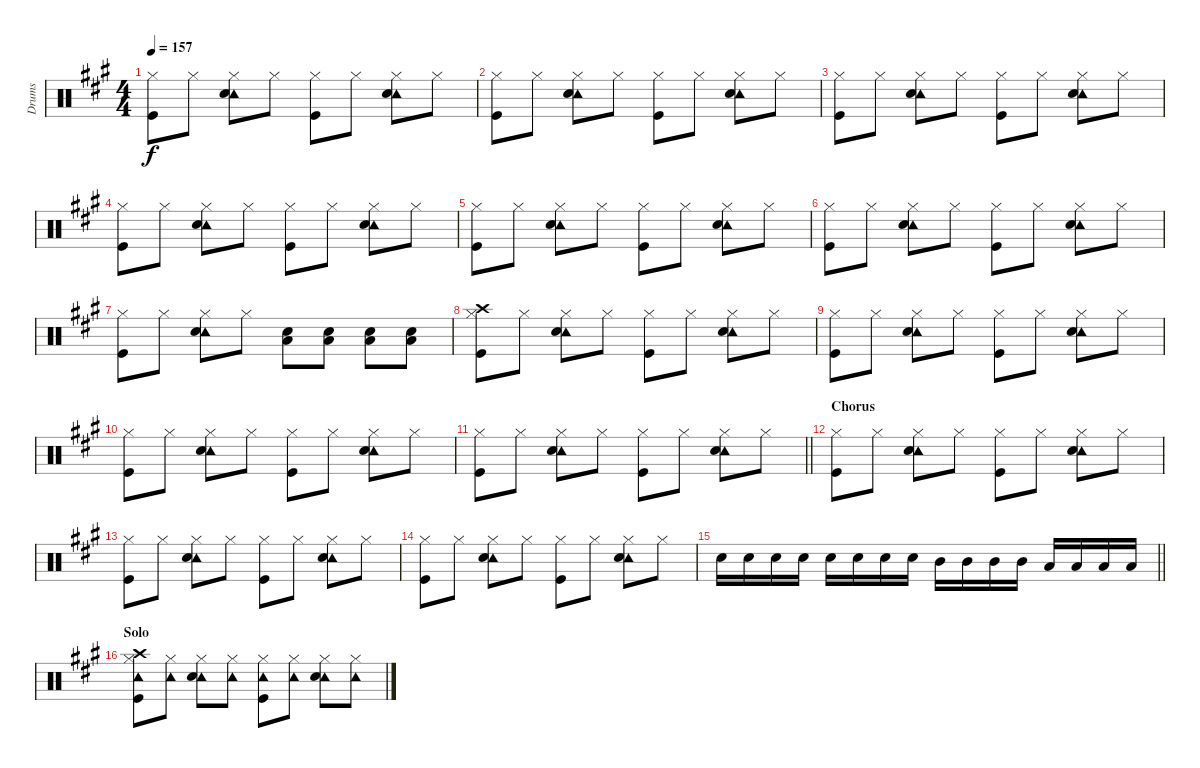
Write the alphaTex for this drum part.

\track ("Drums" "Drums") {instrument percussion}
\staff {score}
\articulation defaults
\ts (4 4)
\tempo 157
\clef neutral
\ks a
("Hi-Hat (closed)" "Kick (hit)").8{dy f} "Hi-Hat (closed)".8 ("Hi-Hat (closed)" "Tambourine (hit)" "Electric Snare (hit)").8 "Hi-Hat (closed)".8 ("Hi-Hat (closed)" "Kick (hit)").8 "Hi-Hat (closed)".8 ("Hi-Hat (closed)" "Tambourine (hit)" "Electric Snare (hit)").8 "Hi-Hat (closed)".8 |
("Hi-Hat (closed)" "Kick (hit)").8 "Hi-Hat (closed)".8 ("Hi-Hat (closed)" "Tambourine (hit)" "Electric Snare (hit)").8 "Hi-Hat (closed)".8 ("Hi-Hat (closed)" "Kick (hit)").8 "Hi-Hat (closed)".8 ("Hi-Hat (closed)" "Tambourine (hit)" "Electric Snare (hit)").8 "Hi-Hat (closed)".8 |
("Hi-Hat (closed)" "Kick (hit)").8 "Hi-Hat (closed)".8 ("Hi-Hat (closed)" "Tambourine (hit)" "Electric Snare (hit)").8 "Hi-Hat (closed)".8 ("Hi-Hat (closed)" "Kick (hit)").8 "Hi-Hat (closed)".8 ("Hi-Hat (closed)" "Tambourine (hit)" "Electric Snare (hit)").8 "Hi-Hat (closed)".8 |
("Hi-Hat (closed)" "Kick (hit)").8 "Hi-Hat (closed)".8 ("Hi-Hat (closed)" "Tambourine (hit)" "Electric Snare (hit)").8 "Hi-Hat (closed)".8 ("Hi-Hat (closed)" "Kick (hit)").8 "Hi-Hat (closed)".8 ("Hi-Hat (closed)" "Tambourine (hit)" "Electric Snare (hit)").8 "Hi-Hat (closed)".8 |
("Hi-Hat (closed)" "Kick (hit)").8 "Hi-Hat (closed)".8 ("Hi-Hat (closed)" "Tambourine (hit)" "Electric Snare (hit)").8 "Hi-Hat (closed)".8 ("Hi-Hat (closed)" "Kick (hit)").8 "Hi-Hat (closed)".8 ("Hi-Hat (closed)" "Tambourine (hit)" "Electric Snare (hit)").8 "Hi-Hat (closed)".8 |
("Hi-Hat (closed)" "Kick (hit)").8 "Hi-Hat (closed)".8 ("Hi-Hat (closed)" "Tambourine (hit)" "Electric Snare (hit)").8 "Hi-Hat (closed)".8 ("Hi-Hat (closed)" "Kick (hit)").8 "Hi-Hat (closed)".8 ("Hi-Hat (closed)" "Tambourine (hit)" "Electric Snare (hit)").8 "Hi-Hat (closed)".8 |
("Hi-Hat (closed)" "Kick (hit)").8 "Hi-Hat (closed)".8 ("Hi-Hat (closed)" "Tambourine (hit)" "Electric Snare (hit)").8 "Hi-Hat (closed)".8 ("Electric Snare (hit)" "Low Floor Tom (hit)").8 ("Electric Snare (hit)" "Low Floor Tom (hit)").8 ("Electric Snare (hit)" "Low Floor Tom (hit)").8 ("Electric Snare (hit)" "Low Floor Tom (hit)").8 |
("Hi-Hat (closed)" "Crash high (hit)" "Kick (hit)").8 "Hi-Hat (closed)".8 ("Hi-Hat (closed)" "Tambourine (hit)" "Electric Snare (hit)").8 "Hi-Hat (closed)".8 ("Hi-Hat (closed)" "Kick (hit)").8 "Hi-Hat (closed)".8 ("Hi-Hat (closed)" "Tambourine (hit)" "Electric Snare (hit)").8 "Hi-Hat (closed)".8 |
("Hi-Hat (closed)" "Kick (hit)").8 "Hi-Hat (closed)".8 ("Hi-Hat (closed)" "Tambourine (hit)" "Electric Snare (hit)").8 "Hi-Hat (closed)".8 ("Hi-Hat (closed)" "Kick (hit)").8 "Hi-Hat (closed)".8 ("Hi-Hat (closed)" "Tambourine (hit)" "Electric Snare (hit)").8 "Hi-Hat (closed)".8 |
("Hi-Hat (closed)" "Kick (hit)").8 "Hi-Hat (closed)".8 ("Hi-Hat (closed)" "Tambourine (hit)" "Electric Snare (hit)").8 "Hi-Hat (closed)".8 ("Hi-Hat (closed)" "Kick (hit)").8 "Hi-Hat (closed)".8 ("Hi-Hat (closed)" "Tambourine (hit)" "Electric Snare (hit)").8 "Hi-Hat (closed)".8 |
\barLineRight lightlight
("Hi-Hat (closed)" "Kick (hit)").8 "Hi-Hat (closed)".8 ("Hi-Hat (closed)" "Tambourine (hit)" "Electric Snare (hit)").8 "Hi-Hat (closed)".8 ("Hi-Hat (closed)" "Kick (hit)").8 "Hi-Hat (closed)".8 ("Hi-Hat (closed)" "Tambourine (hit)" "Electric Snare (hit)").8 "Hi-Hat (closed)".8 |
\section ("" "Chorus")
("Hi-Hat (closed)" "Kick (hit)").8 "Hi-Hat (closed)".8 ("Hi-Hat (closed)" "Tambourine (hit)" "Electric Snare (hit)").8 "Hi-Hat (closed)".8 ("Hi-Hat (closed)" "Kick (hit)").8 "Hi-Hat (closed)".8 ("Hi-Hat (closed)" "Tambourine (hit)" "Electric Snare (hit)").8 "Hi-Hat (closed)".8 |
("Hi-Hat (closed)" "Kick (hit)").8 "Hi-Hat (closed)".8 ("Hi-Hat (closed)" "Tambourine (hit)" "Electric Snare (hit)").8 "Hi-Hat (closed)".8 ("Hi-Hat (closed)" "Kick (hit)").8 "Hi-Hat (closed)".8 ("Hi-Hat (closed)" "Tambourine (hit)" "Electric Snare (hit)").8 "Hi-Hat (closed)".8 |
("Hi-Hat (closed)" "Kick (hit)").8 "Hi-Hat (closed)".8 ("Hi-Hat (closed)" "Tambourine (hit)" "Electric Snare (hit)").8 "Hi-Hat (closed)".8 ("Hi-Hat (closed)" "Kick (hit)").8 "Hi-Hat (closed)".8 ("Hi-Hat (closed)" "Tambourine (hit)" "Electric Snare (hit)").8 "Hi-Hat (closed)".8 |
\barLineRight lightlight "Electric Snare (hit)".16 "Electric Snare (hit)".16 "Electric Snare (hit)".16 "Electric Snare (hit)".16 "Electric Snare (hit)".16 "Electric Snare (hit)".16 "Electric Snare (hit)".16 "Electric Snare (hit)".16 "Mid Tom (hit)".16 "Mid Tom (hit)".16 "Mid Tom (hit)".16 "Mid Tom (hit)".16 "Low Tom (hit)".16 "Low Tom (hit)".16 "Low Tom (hit)".16 "Low Tom (hit)".16
|
\section ("" "Solo")
("Hi-Hat (closed)" "Crash high (hit)" "Tambourine (hit)" "Kick (hit)").8 ("Hi-Hat (closed)" "Tambourine (hit)").8 ("Hi-Hat (closed)" "Tambourine (hit)" "Electric Snare (hit)").8 ("Hi-Hat (closed)" "Tambourine (hit)").8 ("Hi-Hat (closed)" "Tambourine (hit)" "Kick (hit)").8 ("Hi-Hat (closed)" "Tambourine (hit)").8 ("Hi-Hat (closed)" "Tambourine (hit)" "Electric Snare (hit)").8 ("Hi-Hat (closed)" "Tambourine (hit)").8
